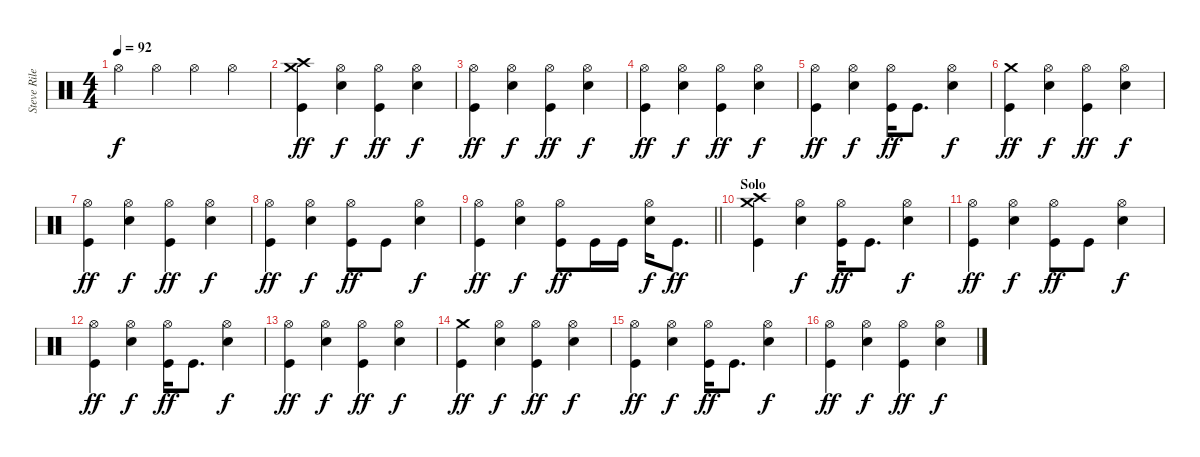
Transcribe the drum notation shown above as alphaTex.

\track ("Steve Riley" "Steve Rile") {instrument percussion}
\staff {score}
\articulation defaults
\ts (4 4)
\tempo 92
\clef neutral
\ks c "Hi-Hat (open)".4{dy f} "Hi-Hat (open)".4 "Hi-Hat (open)".4 "Hi-Hat (open)".4
|
("Crash medium (hit)" "Crash high (hit)" "Kick (hit)").4{dy ff} ("Hi-Hat (open)" "Snare (hit) 2").4{dy f} ("Hi-Hat (open)" "Kick (hit)").4{dy ff} ("Hi-Hat (open)" "Snare (hit) 2").4{dy f} |
("Hi-Hat (open)" "Kick (hit)").4{dy ff} ("Hi-Hat (open)" "Snare (hit) 2").4{dy f} ("Hi-Hat (open)" "Kick (hit)").4{dy ff} ("Hi-Hat (open)" "Snare (hit) 2").4{dy f} |
("Hi-Hat (open)" "Kick (hit)").4{dy ff} ("Hi-Hat (open)" "Snare (hit) 2").4{dy f} ("Hi-Hat (open)" "Kick (hit)").4{dy ff} ("Hi-Hat (open)" "Snare (hit) 2").4{dy f} |
("Hi-Hat (open)" "Kick (hit)").4{dy ff} ("Hi-Hat (open)" "Snare (hit) 2").4{dy f} ("Hi-Hat (open)" "Kick (hit)").16{dy ff} "Kick (hit)".8{d} ("Hi-Hat (open)" "Snare (hit) 2").4{dy f} |
("Crash medium (hit)" "Kick (hit)").4{dy ff} ("Hi-Hat (open)" "Snare (hit) 2").4{dy f} ("Hi-Hat (open)" "Kick (hit)").4{dy ff} ("Hi-Hat (open)" "Snare (hit) 2").4{dy f} |
("Hi-Hat (open)" "Kick (hit)").4{dy ff} ("Hi-Hat (open)" "Snare (hit) 2").4{dy f} ("Hi-Hat (open)" "Kick (hit)").4{dy ff} ("Hi-Hat (open)" "Snare (hit) 2").4{dy f} |
("Hi-Hat (open)" "Kick (hit)").4{dy ff} ("Hi-Hat (open)" "Snare (hit) 2").4{dy f} ("Hi-Hat (open)" "Kick (hit)").8{dy ff} "Kick (hit)".8 ("Hi-Hat (open)" "Snare (hit) 2").4{dy f} |
\barLineRight lightlight
("Hi-Hat (open)" "Kick (hit)").4{dy ff} ("Hi-Hat (open)" "Snare (hit) 2").4{dy f} ("Hi-Hat (open)" "Kick (hit)").8{dy ff} "Kick (hit)".16 "Kick (hit)".16 ("Hi-Hat (open)" "Snare (hit) 2").16{dy f} "Kick (hit)".8{d dy ff} |
\section ("" "Solo ")
("Crash medium (hit)" "Crash high (hit)" "Kick (hit)").4 ("Hi-Hat (open)" "Snare (hit) 2").4{dy f} ("Hi-Hat (open)" "Kick (hit)").16{dy ff} "Kick (hit)".8{d} ("Hi-Hat (open)" "Snare (hit) 2").4{dy f} |
("Hi-Hat (open)" "Kick (hit)").4{dy ff} ("Hi-Hat (open)" "Snare (hit) 2").4{dy f} ("Hi-Hat (open)" "Kick (hit)").8{dy ff} "Kick (hit)".8 ("Hi-Hat (open)" "Snare (hit) 2").4{dy f} |
("Hi-Hat (open)" "Kick (hit)").4{dy ff} ("Hi-Hat (open)" "Snare (hit) 2").4{dy f} ("Hi-Hat (open)" "Kick (hit)").16{dy ff} "Kick (hit)".8{d} ("Hi-Hat (open)" "Snare (hit) 2").4{dy f} |
("Hi-Hat (open)" "Kick (hit)").4{dy ff} ("Hi-Hat (open)" "Snare (hit) 2").4{dy f} ("Hi-Hat (open)" "Kick (hit)").4{dy ff} ("Hi-Hat (open)" "Snare (hit) 2").4{dy f} |
("Crash medium (hit)" "Kick (hit)").4{dy ff} ("Hi-Hat (open)" "Snare (hit) 2").4{dy f} ("Hi-Hat (open)" "Kick (hit)").4{dy ff} ("Hi-Hat (open)" "Snare (hit) 2").4{dy f} |
("Hi-Hat (open)" "Kick (hit)").4{dy ff} ("Hi-Hat (open)" "Snare (hit) 2").4{dy f} ("Hi-Hat (open)" "Kick (hit)").16{dy ff} "Kick (hit)".8{d} ("Hi-Hat (open)" "Snare (hit) 2").4{dy f} |
("Hi-Hat (open)" "Kick (hit)").4{dy ff} ("Hi-Hat (open)" "Snare (hit) 2").4{dy f} ("Hi-Hat (open)" "Kick (hit)").4{dy ff} ("Hi-Hat (open)" "Snare (hit) 2").4{dy f}
